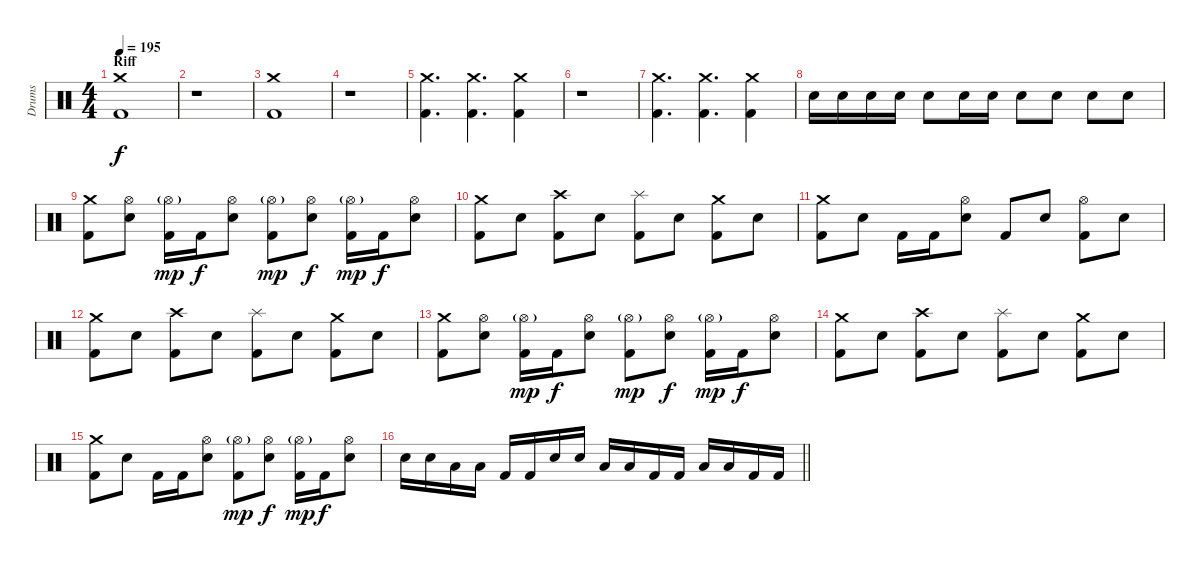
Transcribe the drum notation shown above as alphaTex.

\track ("Drums" "Drums") {instrument percussion}
\staff {score}
\articulation defaults
\ts (4 4)
\section ("" "Riff")
\tempo 195
\clef neutral
\ks c
("Crash medium (hit)" "Kick (hit) 2").1{dy f} |
r.1 |
("Crash medium (hit)" "Kick (hit) 2").1 |
r.1 |
("Crash medium (hit)" "Kick (hit) 2").4{d} ("Crash medium (hit)" "Kick (hit) 2").4{d} ("Crash medium (hit)" "Kick (hit) 2").4 |
r.1 |
("Crash medium (hit)" "Kick (hit) 2").4{d} ("Crash medium (hit)" "Kick (hit) 2").4{d} ("Crash medium (hit)" "Kick (hit) 2").4 |
"Snare (hit) 2".16 "Snare (hit) 2".16 "Snare (hit) 2".16 "Snare (hit) 2".16 "Snare (hit) 2".8 "Snare (hit) 2".16 "Snare (hit) 2".16 "Snare (hit) 2".8 "Snare (hit) 2".8 "Snare (hit) 2".8 "Snare (hit) 2".8 |
("Crash medium (hit)" "Kick (hit) 2").8 ("Hi-Hat (open)" "Snare (hit) 2").8 ("Hi-Hat (open)"{g} "Kick (hit) 2").16{dy mp} "Kick (hit) 2".16{dy f} ("Hi-Hat (open)" "Snare (hit) 2").8 ("Hi-Hat (open)"{g} "Kick (hit) 2").8{dy mp} ("Hi-Hat (open)" "Snare (hit) 2").8{dy f} ("Hi-Hat (open)"{g} "Kick (hit) 2").16{dy mp} "Kick (hit) 2".16{dy f} ("Hi-Hat (open)" "Snare (hit) 2").8 |
("Crash medium (hit)" "Kick (hit) 2").8 "Snare (hit) 2".8 ("Crash high (hit)" "Kick (hit) 2").8 "Snare (hit) 2".8 ("Splash (hit)" "Kick (hit) 2").8 "Snare (hit) 2".8 ("Crash medium (hit)" "Kick (hit) 2").8 "Snare (hit) 2".8 |
("Crash medium (hit)" "Kick (hit) 2").8 "Snare (hit) 2".8 "Kick (hit) 2".16 "Kick (hit) 2".16 ("Hi-Hat (open)" "Snare (hit) 2").8 "Kick (hit) 2".8 "Snare (hit) 2".8 ("Hi-Hat (open)" "Kick (hit) 2").8 "Snare (hit) 2".8 |
("Crash medium (hit)" "Kick (hit) 2").8 "Snare (hit) 2".8 ("Crash high (hit)" "Kick (hit) 2").8 "Snare (hit) 2".8 ("Splash (hit)" "Kick (hit) 2").8 "Snare (hit) 2".8 ("Crash medium (hit)" "Kick (hit) 2").8 "Snare (hit) 2".8 |
("Crash medium (hit)" "Kick (hit) 2").8 ("Hi-Hat (open)" "Snare (hit) 2").8 ("Hi-Hat (open)"{g} "Kick (hit) 2").16{dy mp} "Kick (hit) 2".16{dy f} ("Hi-Hat (open)" "Snare (hit) 2").8 ("Hi-Hat (open)"{g} "Kick (hit) 2").8{dy mp} ("Hi-Hat (open)" "Snare (hit) 2").8{dy f} ("Hi-Hat (open)"{g} "Kick (hit) 2").16{dy mp} "Kick (hit) 2".16{dy f} ("Hi-Hat (open)" "Snare (hit) 2").8 |
("Crash medium (hit)" "Kick (hit) 2").8 "Snare (hit) 2".8 ("Crash high (hit)" "Kick (hit) 2").8 "Snare (hit) 2".8 ("Splash (hit)" "Kick (hit) 2").8 "Snare (hit) 2".8 ("Crash medium (hit)" "Kick (hit) 2").8 "Snare (hit) 2".8 |
("Crash medium (hit)" "Kick (hit) 2").8 "Snare (hit) 2".8 "Kick (hit) 2".16 "Kick (hit) 2".16 ("Hi-Hat (open)" "Snare (hit) 2").8 ("Hi-Hat (open)"{g} "Kick (hit) 2").8{dy mp} ("Hi-Hat (open)" "Snare (hit) 2").8{dy f} ("Hi-Hat (open)"{g} "Kick (hit) 2").16{dy mp} "Kick (hit) 2".16{dy f} ("Hi-Hat (open)" "Snare (hit) 2").8 |
\barLineRight lightlight "Snare (hit) 2".16 "Snare (hit) 2".16 "Low Tom (hit)".16 "Low Tom (hit)".16 "Kick (hit) 2".16 "Kick (hit) 2".16 "Snare (hit) 2".16 "Snare (hit) 2".16 "Low Tom (hit)".16 "Low Tom (hit)".16 "Kick (hit) 2".16 "Kick (hit) 2".16 "Low Tom (hit)".16 "Low Tom (hit)".16 "Kick (hit) 2".16 "Kick (hit) 2".16
